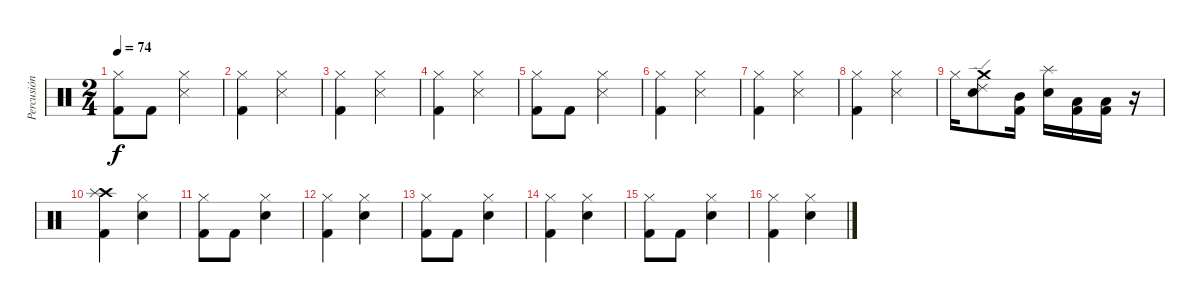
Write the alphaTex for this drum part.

\track ("Percusión" "Percusión") {instrument percussion}
\staff {score}
\articulation defaults
\ts (2 4)
\tempo 74
\clef neutral
\ks c
("Hi-Hat (closed)" "Kick (hit) 2").8{dy f} "Kick (hit) 2".8 ("Hi-Hat (closed)" "Snare (side stick) 3").4 |
("Hi-Hat (closed)" "Kick (hit) 2").4 ("Hi-Hat (closed)" "Snare (side stick) 3").4 |
("Hi-Hat (closed)" "Kick (hit) 2").4 ("Hi-Hat (closed)" "Snare (side stick) 3").4 |
("Hi-Hat (closed)" "Kick (hit) 2").4 ("Hi-Hat (closed)" "Snare (side stick) 3").4 |
("Hi-Hat (closed)" "Kick (hit) 2").8 "Kick (hit) 2".8 ("Hi-Hat (closed)" "Snare (side stick) 3").4 |
("Hi-Hat (closed)" "Kick (hit) 2").4 ("Hi-Hat (closed)" "Snare (side stick) 3").4 |
("Hi-Hat (closed)" "Kick (hit) 2").4 ("Hi-Hat (closed)" "Snare (side stick) 3").4 |
("Hi-Hat (closed)" "Kick (hit) 2").4 ("Hi-Hat (closed)" "Snare (side stick) 3").4 |
"Hi-Hat (closed)".16 ("Ride (edge) 2" "Crash medium (hit)" "Electric Snare (hit)").8 ("Mid Tom (hit)" "Kick (hit) 2").16 ("Splash (hit)" "Electric Snare (hit)").16 ("Low Tom (hit)" "Kick (hit) 2").16 ("Low Tom (hit)" "Kick (hit) 2").16 r.16 |
("Crash high (hit)" "Splash (hit)" "Kick (hit) 2").4 ("Hi-Hat (closed)" "Electric Snare (hit)").4 |
("Hi-Hat (closed)" "Kick (hit) 2").8 "Kick (hit) 2".8 ("Hi-Hat (closed)" "Electric Snare (hit)").4 |
("Hi-Hat (closed)" "Kick (hit) 2").4 ("Hi-Hat (closed)" "Electric Snare (hit)").4 |
("Hi-Hat (closed)" "Kick (hit) 2").8 "Kick (hit) 2".8 ("Hi-Hat (closed)" "Electric Snare (hit)").4 |
("Hi-Hat (closed)" "Kick (hit) 2").4 ("Hi-Hat (closed)" "Electric Snare (hit)").4 |
("Hi-Hat (closed)" "Kick (hit) 2").8 "Kick (hit) 2".8 ("Hi-Hat (closed)" "Electric Snare (hit)").4 |
("Hi-Hat (closed)" "Kick (hit) 2").4 ("Hi-Hat (closed)" "Electric Snare (hit)").4
